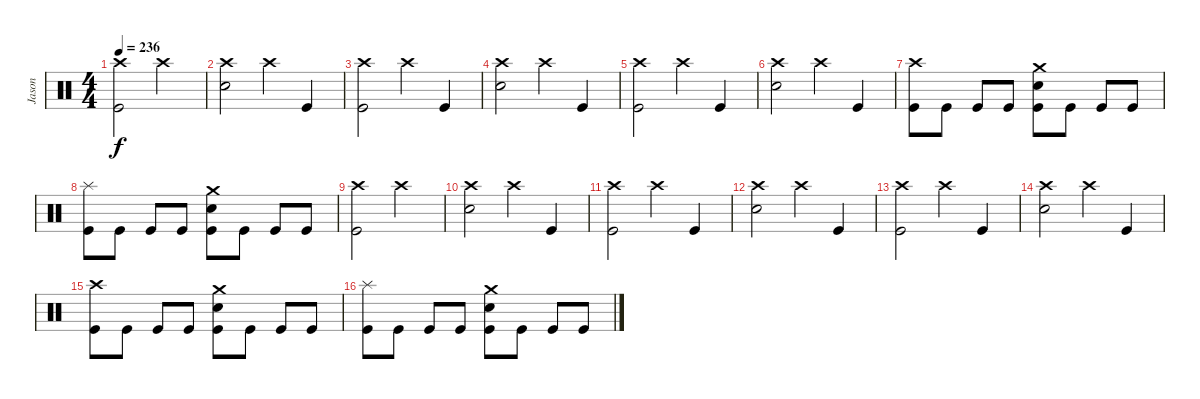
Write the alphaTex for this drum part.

\track ("Jason" "Jason") {instrument percussion}
\staff {score}
\articulation defaults
\ts (4 4)
\tempo 236
\clef neutral
\ks c
("Crash high (hit)" "Kick (hit)").2{dy f} "Crash high (hit)".2 |
("Crash high (hit)" "Electric Snare (hit)").2 "Crash high (hit)".4 "Kick (hit)".4 |
("Crash high (hit)" "Kick (hit)").2 "Crash high (hit)".4 "Kick (hit)".4 |
("Crash high (hit)" "Electric Snare (hit)").2 "Crash high (hit)".4 "Kick (hit)".4 |
("Crash high (hit)" "Kick (hit)").2 "Crash high (hit)".4 "Kick (hit)".4 |
("Crash high (hit)" "Electric Snare (hit)").2 "Crash high (hit)".4 "Kick (hit)".4 |
("Crash high (hit)" "Kick (hit)").8 "Kick (hit)".8 "Kick (hit)".8 "Kick (hit)".8 ("Crash medium (hit)" "Electric Snare (hit)" "Kick (hit)").8 "Kick (hit)".8 "Kick (hit)".8 "Kick (hit)".8 |
("Splash (hit)" "Kick (hit)").8 "Kick (hit)".8 "Kick (hit)".8 "Kick (hit)".8 ("Crash medium (hit)" "Electric Snare (hit)" "Kick (hit)").8 "Kick (hit)".8 "Kick (hit)".8 "Kick (hit)".8 |
("Crash high (hit)" "Kick (hit)").2 "Crash high (hit)".2 |
("Crash high (hit)" "Electric Snare (hit)").2 "Crash high (hit)".4 "Kick (hit)".4 |
("Crash high (hit)" "Kick (hit)").2 "Crash high (hit)".4 "Kick (hit)".4 |
("Crash high (hit)" "Electric Snare (hit)").2 "Crash high (hit)".4 "Kick (hit)".4 |
("Crash high (hit)" "Kick (hit)").2 "Crash high (hit)".4 "Kick (hit)".4 |
("Crash high (hit)" "Electric Snare (hit)").2 "Crash high (hit)".4 "Kick (hit)".4 |
("Crash high (hit)" "Kick (hit)").8 "Kick (hit)".8 "Kick (hit)".8 "Kick (hit)".8 ("Crash medium (hit)" "Electric Snare (hit)" "Kick (hit)").8 "Kick (hit)".8 "Kick (hit)".8 "Kick (hit)".8 |
("Splash (hit)" "Kick (hit)").8 "Kick (hit)".8 "Kick (hit)".8 "Kick (hit)".8 ("Crash medium (hit)" "Electric Snare (hit)" "Kick (hit)").8 "Kick (hit)".8 "Kick (hit)".8 "Kick (hit)".8
